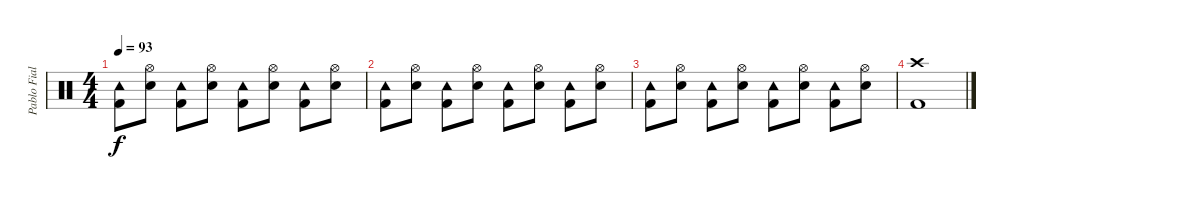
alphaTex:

\track ("Pablo Fiallo" "Pablo Fial") {instrument percussion}
\staff {score}
\articulation defaults
\ts (4 4)
\tempo 93
\clef neutral
\ks c
("Kick (hit) 2" "Tambourine (hit)").8{dy f} ("Hi-Hat (open)" "Snare (hit) 2").8 ("Kick (hit) 2" "Tambourine (hit)").8 ("Hi-Hat (open)" "Snare (hit) 2").8 ("Kick (hit) 2" "Tambourine (hit)").8 ("Hi-Hat (open)" "Snare (hit) 2").8 ("Kick (hit) 2" "Tambourine (hit)").8 ("Hi-Hat (open)" "Snare (hit) 2").8 |
("Kick (hit) 2" "Tambourine (hit)").8 ("Hi-Hat (open)" "Snare (hit) 2").8 ("Kick (hit) 2" "Tambourine (hit)").8 ("Hi-Hat (open)" "Snare (hit) 2").8 ("Kick (hit) 2" "Tambourine (hit)").8 ("Hi-Hat (open)" "Snare (hit) 2").8 ("Kick (hit) 2" "Tambourine (hit)").8 ("Hi-Hat (open)" "Snare (hit) 2").8 |
("Kick (hit) 2" "Tambourine (hit)").8 ("Hi-Hat (open)" "Snare (hit) 2").8 ("Kick (hit) 2" "Tambourine (hit)").8 ("Hi-Hat (open)" "Snare (hit) 2").8 ("Kick (hit) 2" "Tambourine (hit)").8 ("Hi-Hat (open)" "Snare (hit) 2").8 ("Kick (hit) 2" "Tambourine (hit)").8 ("Hi-Hat (open)" "Snare (hit) 2").8 |
("Kick (hit) 2" "Crash high (hit)").1
